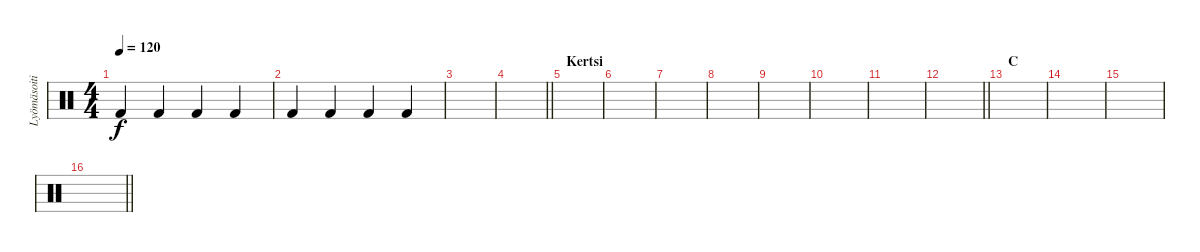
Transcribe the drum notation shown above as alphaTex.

\track ("Lyömäsoitin" "Lyömäsoiti") {instrument percussion}
\staff {score}
\articulation defaults
\ts (4 4)
\tempo 120
\clef neutral
\ks c "Kick (hit) 2".4{dy f} "Kick (hit) 2".4 "Kick (hit) 2".4 "Kick (hit) 2".4
|
"Kick (hit) 2".4 "Kick (hit) 2".4 "Kick (hit) 2".4 "Kick (hit) 2".4 |
|
\barLineRight lightlight
|
\section ("" "Kertsi")
|
|
|
|
|
|
|
\barLineRight lightlight
|
\section ("" "C")
|
|
|
\barLineRight lightlight
